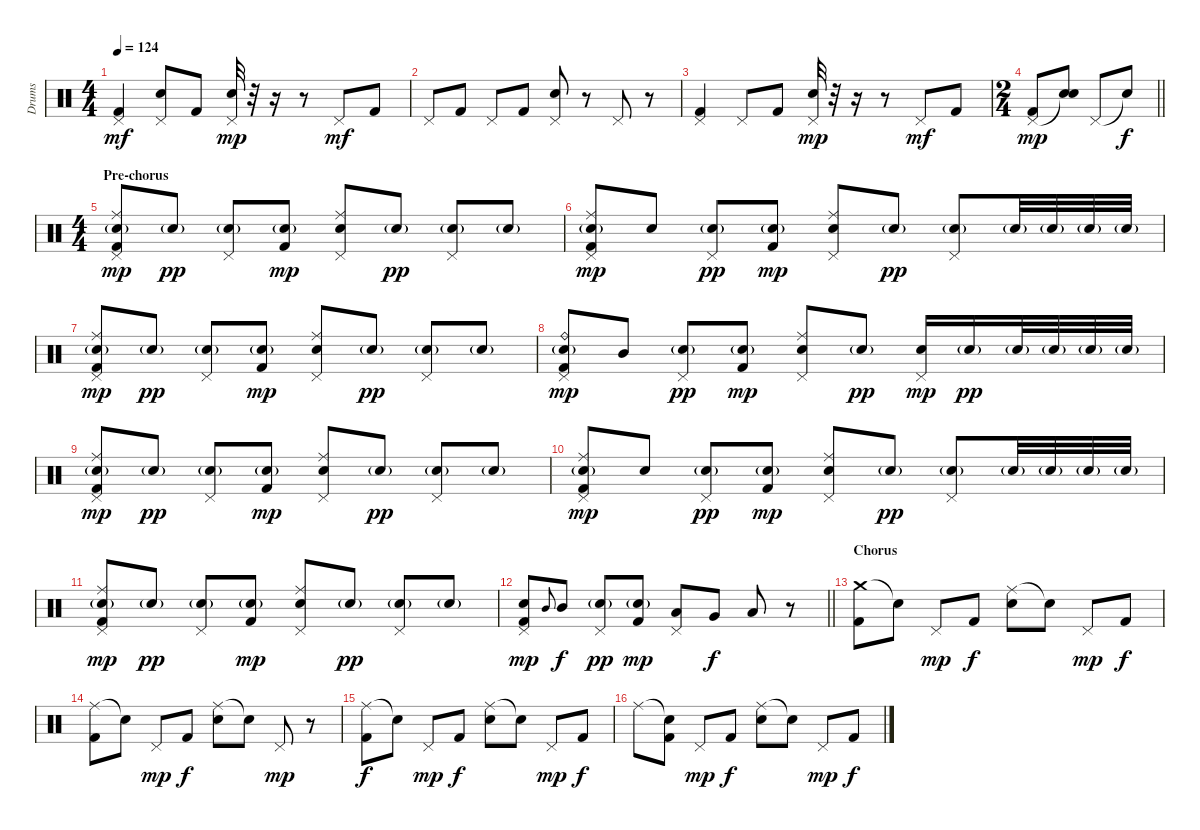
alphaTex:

\track ("Drums" "Drums") {instrument percussion}
\staff {score}
\articulation defaults
\ts (4 4)
\tempo 124
\clef neutral
\ks c
("Pedal Hi-Hat (hit)" "Kick (hit) 2").4{dy mf} ("Pedal Hi-Hat (hit)" "Electric Snare (hit)").8 "Kick (hit) 2".8 ("Pedal Hi-Hat (hit)" "Electric Snare (hit)").32{dy mp} r.32 r.16 r.8 "Pedal Hi-Hat (hit)".8{dy mf} "Kick (hit) 2".8 |
"Pedal Hi-Hat (hit)".8 "Kick (hit) 2".8 "Pedal Hi-Hat (hit)".8 "Kick (hit) 2".8 ("Pedal Hi-Hat (hit)" "Electric Snare (hit)").8 r.8 "Pedal Hi-Hat (hit)".8 r.8 |
("Pedal Hi-Hat (hit)" "Kick (hit) 2").4 "Pedal Hi-Hat (hit)".8 "Kick (hit) 2".8 ("Pedal Hi-Hat (hit)" "Electric Snare (hit)").32{dy mp} r.32 r.16 r.8 "Pedal Hi-Hat (hit)".8{dy mf} "Kick (hit) 2".8 |
\ts (2 4)
\barLineRight lightlight
("Pedal Hi-Hat (hit)" "Kick (hit) 2").8{dy mp} ("Snare (hit)"{t} "Electric Snare (hit)").8 "Pedal Hi-Hat (hit)".8 "Snare (hit)"{t}.8{dy f} |
\ts (4 4)
\section ("" "Pre-chorus")
("Pedal Hi-Hat (hit)" "Ride (middle)" "Electric Snare (hit)"{g} "Kick (hit) 2").8{dy mp} "Electric Snare (hit)"{g}.8{dy pp} ("Pedal Hi-Hat (hit)" "Electric Snare (hit)"{g}).8 ("Electric Snare (hit)"{g} "Kick (hit) 2").8{dy mp} ("Pedal Hi-Hat (hit)" "Ride (middle)" "Electric Snare (hit)").8 "Electric Snare (hit)"{g}.8{dy pp} ("Pedal Hi-Hat (hit)" "Electric Snare (hit)"{g}).8 "Electric Snare (hit)"{g}.8 |
("Pedal Hi-Hat (hit)" "Ride (middle)" "Electric Snare (hit)"{g} "Kick (hit) 2").8{dy mp} "Electric Snare (hit)".8 ("Pedal Hi-Hat (hit)" "Electric Snare (hit)"{g}).8{dy pp} ("Electric Snare (hit)"{g} "Kick (hit) 2").8{dy mp} ("Pedal Hi-Hat (hit)" "Ride (middle)" "Electric Snare (hit)").8 "Electric Snare (hit)"{g}.8{dy pp} ("Pedal Hi-Hat (hit)" "Electric Snare (hit)"{g}).8 "Electric Snare (hit)"{g}.32 "Electric Snare (hit)"{g}.32 "Electric Snare (hit)"{g}.32 "Electric Snare (hit)"{g}.32 |
("Pedal Hi-Hat (hit)" "Ride (middle)" "Electric Snare (hit)"{g} "Kick (hit) 2").8{dy mp} "Electric Snare (hit)"{g}.8{dy pp} ("Pedal Hi-Hat (hit)" "Electric Snare (hit)"{g}).8 ("Electric Snare (hit)"{g} "Kick (hit) 2").8{dy mp} ("Pedal Hi-Hat (hit)" "Ride (middle)" "Electric Snare (hit)").8 "Electric Snare (hit)"{g}.8{dy pp} ("Pedal Hi-Hat (hit)" "Electric Snare (hit)"{g}).8 "Electric Snare (hit)"{g}.8 |
("Pedal Hi-Hat (hit)" "Ride (bell)" "Electric Snare (hit)"{g} "Kick (hit) 2").8{dy mp} "Mid Tom (hit)".8 ("Pedal Hi-Hat (hit)" "Electric Snare (hit)"{g}).8{dy pp} ("Electric Snare (hit)"{g} "Kick (hit) 2").8{dy mp} ("Pedal Hi-Hat (hit)" "Ride (middle)" "Electric Snare (hit)").8 "Electric Snare (hit)"{g}.8{dy pp} ("Pedal Hi-Hat (hit)" "Electric Snare (hit)").16{dy mp} "Electric Snare (hit)"{g}.16{dy pp} "Electric Snare (hit)"{g}.32 "Electric Snare (hit)"{g}.32 "Electric Snare (hit)"{g}.32 "Electric Snare (hit)"{g}.32 |
("Pedal Hi-Hat (hit)" "Ride (middle)" "Electric Snare (hit)"{g} "Kick (hit) 2").8{dy mp} "Electric Snare (hit)"{g}.8{dy pp} ("Pedal Hi-Hat (hit)" "Electric Snare (hit)"{g}).8 ("Electric Snare (hit)"{g} "Kick (hit) 2").8{dy mp} ("Pedal Hi-Hat (hit)" "Ride (middle)" "Electric Snare (hit)").8 "Electric Snare (hit)"{g}.8{dy pp} ("Pedal Hi-Hat (hit)" "Electric Snare (hit)"{g}).8 "Electric Snare (hit)"{g}.8 |
("Pedal Hi-Hat (hit)" "Ride (middle)" "Electric Snare (hit)"{g} "Kick (hit) 2").8{dy mp} "Electric Snare (hit)".8 ("Pedal Hi-Hat (hit)" "Electric Snare (hit)"{g}).8{dy pp} ("Electric Snare (hit)"{g} "Kick (hit) 2").8{dy mp} ("Pedal Hi-Hat (hit)" "Ride (middle)" "Electric Snare (hit)").8 "Electric Snare (hit)"{g}.8{dy pp} ("Pedal Hi-Hat (hit)" "Electric Snare (hit)"{g}).8 "Electric Snare (hit)"{g}.32 "Electric Snare (hit)"{g}.32 "Electric Snare (hit)"{g}.32 "Electric Snare (hit)"{g}.32 |
("Pedal Hi-Hat (hit)" "Ride (middle)" "Electric Snare (hit)"{g} "Kick (hit) 2").8{dy mp} "Electric Snare (hit)"{g}.8{dy pp} ("Pedal Hi-Hat (hit)" "Electric Snare (hit)"{g}).8 ("Electric Snare (hit)"{g} "Kick (hit) 2").8{dy mp} ("Pedal Hi-Hat (hit)" "Ride (middle)" "Electric Snare (hit)").8 "Electric Snare (hit)"{g}.8{dy pp} ("Pedal Hi-Hat (hit)" "Electric Snare (hit)"{g}).8 "Electric Snare (hit)"{g}.8 |
\barLineRight lightlight
("Pedal Hi-Hat (hit)" "Electric Snare (hit)" "Kick (hit) 2").8{dy mp} "Mid Tom (hit)".8{gr onbeat} "Mid Tom (hit)".8{dy f} ("Pedal Hi-Hat (hit)" "Electric Snare (hit)"{g}).8{dy pp} ("Electric Snare (hit)"{g} "Kick (hit) 2").8{dy mp} ("Pedal Hi-Hat (hit)" "Low Tom (hit)").8 "Very Low Tom (hit)".8{dy f} "Low Tom (hit)".8 r.8 |
\section ("" "Chorus")
("Crash medium (hit)" "Kick (hit) 2").8 "Snare (hit)"{t}.8 "Pedal Hi-Hat (hit)".8{dy mp} "Kick (hit) 2".8{dy f} ("Ride (middle)" "Electric Snare (hit)").8 "Snare (hit)"{t}.8 "Pedal Hi-Hat (hit)".8{dy mp} "Kick (hit) 2".8{dy f} |
("Ride (middle)" "Kick (hit) 2").8 "Snare (hit)"{t}.8 "Pedal Hi-Hat (hit)".8{dy mp} "Kick (hit) 2".8{dy f} ("Ride (middle)" "Electric Snare (hit)").8 "Snare (hit)"{t}.8 "Pedal Hi-Hat (hit)".8{dy mp} r.8 |
("Ride (middle)" "Kick (hit) 2").8{dy f} "Snare (hit)"{t}.8 "Pedal Hi-Hat (hit)".8{dy mp} "Kick (hit) 2".8{dy f} ("Ride (middle)" "Electric Snare (hit)").8 "Snare (hit)"{t}.8 "Pedal Hi-Hat (hit)".8{dy mp} "Kick (hit) 2".8{dy f} |
"Ride (middle)".8 ("Snare (hit)"{t} "Kick (hit) 2").8 "Pedal Hi-Hat (hit)".8{dy mp} "Kick (hit) 2".8{dy f} ("Ride (middle)" "Electric Snare (hit)").8 "Snare (hit)"{t}.8 "Pedal Hi-Hat (hit)".8{dy mp} "Kick (hit) 2".8{dy f}
